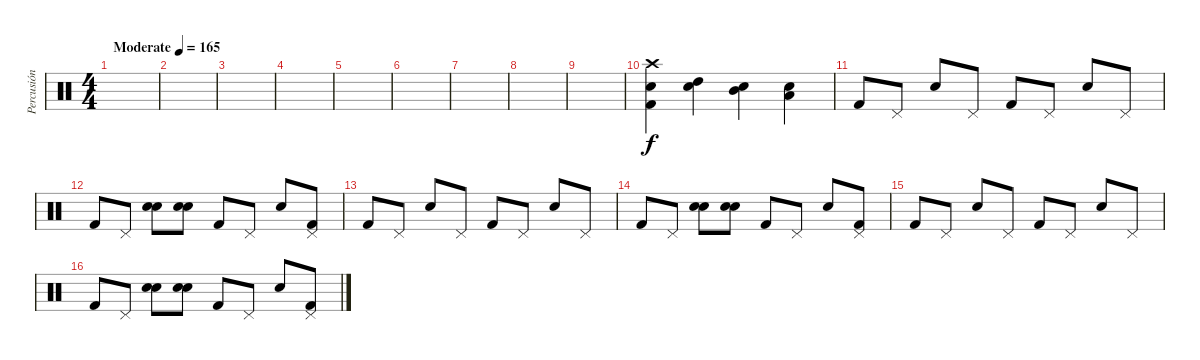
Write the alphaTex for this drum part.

\track ("Percusión" "Percusión") {instrument percussion}
\staff {score}
\articulation defaults
\ts (4 4)
\tempo (165 "Moderate")
\clef neutral
\ks c
|
|
|
|
|
|
|
|
|
("Crash high (hit)" "Snare (hit) 2" "Kick (hit) 2").4 ("High Tom (hit)" "Snare (hit) 2").4 ("Mid Tom (hit)" "Snare (hit) 2").4 ("Low Tom (hit)" "Snare (hit) 2").4 |
"Kick (hit) 2".8 "Pedal Hi-Hat (hit)".8 "Snare (hit) 2".8 "Pedal Hi-Hat (hit)".8 "Kick (hit) 2".8 "Pedal Hi-Hat (hit)".8 "Snare (hit) 2".8 "Pedal Hi-Hat (hit)".8 |
"Kick (hit) 2".8 "Pedal Hi-Hat (hit)".8 ("Snare (hit) 2" "Snare (hit) 2").8 ("Snare (hit) 2" "Snare (hit) 2").8 "Kick (hit) 2".8 "Pedal Hi-Hat (hit)".8 "Snare (hit) 2".8 ("Kick (hit) 2" "Pedal Hi-Hat (hit)").8 |
"Kick (hit) 2".8 "Pedal Hi-Hat (hit)".8 "Snare (hit) 2".8 "Pedal Hi-Hat (hit)".8 "Kick (hit) 2".8 "Pedal Hi-Hat (hit)".8 "Snare (hit) 2".8 "Pedal Hi-Hat (hit)".8 |
"Kick (hit) 2".8 "Pedal Hi-Hat (hit)".8 ("Snare (hit) 2" "Snare (hit) 2").8 ("Snare (hit) 2" "Snare (hit) 2").8 "Kick (hit) 2".8 "Pedal Hi-Hat (hit)".8 "Snare (hit) 2".8 ("Kick (hit) 2" "Pedal Hi-Hat (hit)").8 |
"Kick (hit) 2".8 "Pedal Hi-Hat (hit)".8 "Snare (hit) 2".8 "Pedal Hi-Hat (hit)".8 "Kick (hit) 2".8 "Pedal Hi-Hat (hit)".8 "Snare (hit) 2".8 "Pedal Hi-Hat (hit)".8 |
"Kick (hit) 2".8 "Pedal Hi-Hat (hit)".8 ("Snare (hit) 2" "Snare (hit) 2").8 ("Snare (hit) 2" "Snare (hit) 2").8 "Kick (hit) 2".8 "Pedal Hi-Hat (hit)".8 "Snare (hit) 2".8 ("Kick (hit) 2" "Pedal Hi-Hat (hit)").8
